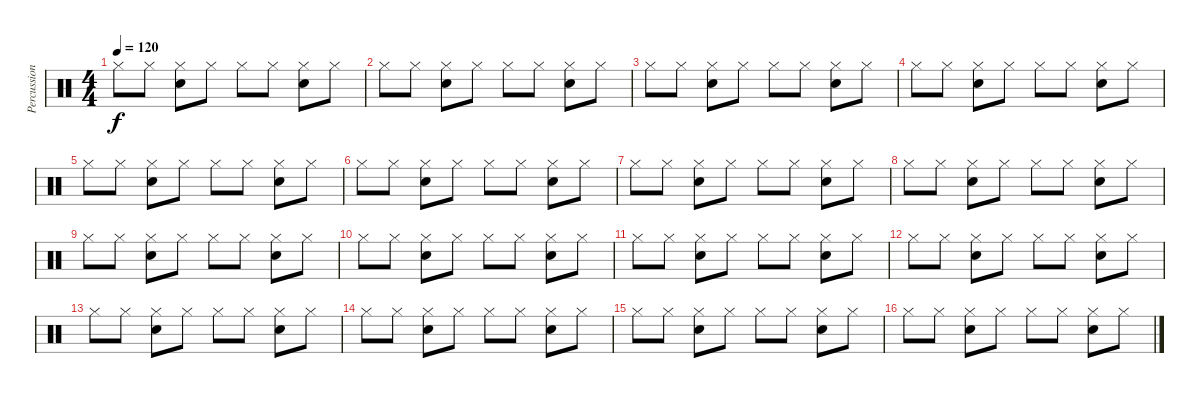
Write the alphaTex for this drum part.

\track ("Percussion      " "Percussion") {instrument percussion}
\staff {score}
\articulation defaults
\ts (4 4)
\tempo 120
\clef neutral
\ks c "Hi-Hat (closed)".8{dy f} "Hi-Hat (closed)".8
("Hi-Hat (closed)" "Snare (hit) 2").8 "Hi-Hat (closed)".8 "Hi-Hat (closed)".8 "Hi-Hat (closed)".8 ("Hi-Hat (closed)" "Snare (hit) 2").8 "Hi-Hat (closed)".8 |
"Hi-Hat (closed)".8 "Hi-Hat (closed)".8 ("Hi-Hat (closed)" "Snare (hit) 2").8 "Hi-Hat (closed)".8 "Hi-Hat (closed)".8 "Hi-Hat (closed)".8 ("Hi-Hat (closed)" "Snare (hit) 2").8 "Hi-Hat (closed)".8 |
"Hi-Hat (closed)".8 "Hi-Hat (closed)".8 ("Hi-Hat (closed)" "Snare (hit) 2").8 "Hi-Hat (closed)".8 "Hi-Hat (closed)".8 "Hi-Hat (closed)".8 ("Hi-Hat (closed)" "Snare (hit) 2").8 "Hi-Hat (closed)".8 |
"Hi-Hat (closed)".8 "Hi-Hat (closed)".8 ("Hi-Hat (closed)" "Snare (hit) 2").8 "Hi-Hat (closed)".8 "Hi-Hat (closed)".8 "Hi-Hat (closed)".8 ("Hi-Hat (closed)" "Snare (hit) 2").8 "Hi-Hat (closed)".8 |
"Hi-Hat (closed)".8 "Hi-Hat (closed)".8 ("Hi-Hat (closed)" "Snare (hit) 2").8 "Hi-Hat (closed)".8 "Hi-Hat (closed)".8 "Hi-Hat (closed)".8 ("Hi-Hat (closed)" "Snare (hit) 2").8 "Hi-Hat (closed)".8 |
"Hi-Hat (closed)".8 "Hi-Hat (closed)".8 ("Hi-Hat (closed)" "Snare (hit) 2").8 "Hi-Hat (closed)".8 "Hi-Hat (closed)".8 "Hi-Hat (closed)".8 ("Hi-Hat (closed)" "Snare (hit) 2").8 "Hi-Hat (closed)".8 |
"Hi-Hat (closed)".8 "Hi-Hat (closed)".8 ("Hi-Hat (closed)" "Snare (hit) 2").8 "Hi-Hat (closed)".8 "Hi-Hat (closed)".8 "Hi-Hat (closed)".8 ("Hi-Hat (closed)" "Snare (hit) 2").8 "Hi-Hat (closed)".8 |
"Hi-Hat (closed)".8 "Hi-Hat (closed)".8 ("Hi-Hat (closed)" "Snare (hit) 2").8 "Hi-Hat (closed)".8 "Hi-Hat (closed)".8 "Hi-Hat (closed)".8 ("Hi-Hat (closed)" "Snare (hit) 2").8 "Hi-Hat (closed)".8 |
"Hi-Hat (closed)".8 "Hi-Hat (closed)".8 ("Hi-Hat (closed)" "Snare (hit) 2").8 "Hi-Hat (closed)".8 "Hi-Hat (closed)".8 "Hi-Hat (closed)".8 ("Hi-Hat (closed)" "Snare (hit) 2").8 "Hi-Hat (closed)".8 |
"Hi-Hat (closed)".8 "Hi-Hat (closed)".8 ("Hi-Hat (closed)" "Snare (hit) 2").8 "Hi-Hat (closed)".8 "Hi-Hat (closed)".8 "Hi-Hat (closed)".8 ("Hi-Hat (closed)" "Snare (hit) 2").8 "Hi-Hat (closed)".8 |
"Hi-Hat (closed)".8 "Hi-Hat (closed)".8 ("Hi-Hat (closed)" "Snare (hit) 2").8 "Hi-Hat (closed)".8 "Hi-Hat (closed)".8 "Hi-Hat (closed)".8 ("Hi-Hat (closed)" "Snare (hit) 2").8 "Hi-Hat (closed)".8 |
"Hi-Hat (closed)".8 "Hi-Hat (closed)".8 ("Hi-Hat (closed)" "Snare (hit) 2").8 "Hi-Hat (closed)".8 "Hi-Hat (closed)".8 "Hi-Hat (closed)".8 ("Hi-Hat (closed)" "Snare (hit) 2").8 "Hi-Hat (closed)".8 |
"Hi-Hat (closed)".8 "Hi-Hat (closed)".8 ("Hi-Hat (closed)" "Snare (hit) 2").8 "Hi-Hat (closed)".8 "Hi-Hat (closed)".8 "Hi-Hat (closed)".8 ("Hi-Hat (closed)" "Snare (hit) 2").8 "Hi-Hat (closed)".8 |
"Hi-Hat (closed)".8 "Hi-Hat (closed)".8 ("Hi-Hat (closed)" "Snare (hit) 2").8 "Hi-Hat (closed)".8 "Hi-Hat (closed)".8 "Hi-Hat (closed)".8 ("Hi-Hat (closed)" "Snare (hit) 2").8 "Hi-Hat (closed)".8 |
"Hi-Hat (closed)".8 "Hi-Hat (closed)".8 ("Hi-Hat (closed)" "Snare (hit) 2").8 "Hi-Hat (closed)".8 "Hi-Hat (closed)".8 "Hi-Hat (closed)".8 ("Hi-Hat (closed)" "Snare (hit) 2").8 "Hi-Hat (closed)".8 |
"Hi-Hat (closed)".8 "Hi-Hat (closed)".8 ("Hi-Hat (closed)" "Snare (hit) 2").8 "Hi-Hat (closed)".8 "Hi-Hat (closed)".8 "Hi-Hat (closed)".8 ("Hi-Hat (closed)" "Snare (hit) 2").8 "Hi-Hat (closed)".8
